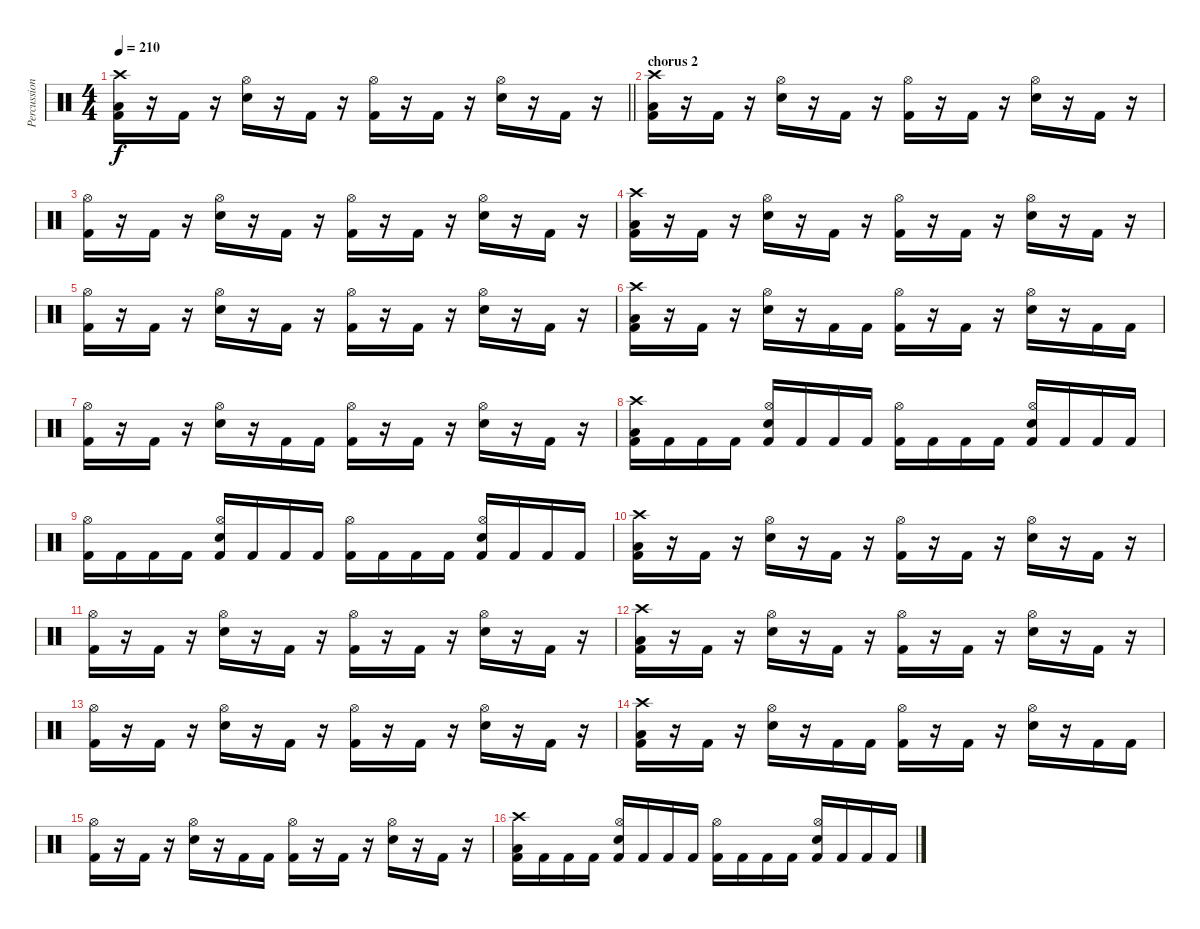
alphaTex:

\track ("Percussion" "Percussion") {instrument percussion}
\staff {score}
\articulation defaults
\ts (4 4)
\tempo 210
\clef neutral
\barLineRight lightlight
\ks c
("Crash high (hit)" "Low Floor Tom (hit)" "Kick (hit) 2").16{dy f} r.16 "Kick (hit) 2".16 r.16 ("Hi-Hat (open)" "Snare (hit) 2").16 r.16 "Kick (hit) 2".16 r.16 ("Hi-Hat (open)" "Kick (hit) 2").16 r.16 "Kick (hit) 2".16 r.16 ("Hi-Hat (open)" "Snare (hit) 2").16 r.16 "Kick (hit) 2".16 r.16 |
\section ("" "chorus 2")
("Crash high (hit)" "Low Floor Tom (hit)" "Kick (hit) 2").16 r.16 "Kick (hit) 2".16 r.16 ("Hi-Hat (open)" "Snare (hit) 2").16 r.16 "Kick (hit) 2".16 r.16 ("Hi-Hat (open)" "Kick (hit) 2").16 r.16 "Kick (hit) 2".16 r.16 ("Hi-Hat (open)" "Snare (hit) 2").16 r.16 "Kick (hit) 2".16 r.16 |
("Hi-Hat (open)" "Kick (hit) 2").16 r.16 "Kick (hit) 2".16 r.16 ("Hi-Hat (open)" "Snare (hit) 2").16 r.16 "Kick (hit) 2".16 r.16 ("Hi-Hat (open)" "Kick (hit) 2").16 r.16 "Kick (hit) 2".16 r.16 ("Hi-Hat (open)" "Snare (hit) 2").16 r.16 "Kick (hit) 2".16 r.16 |
("Crash high (hit)" "Low Floor Tom (hit)" "Kick (hit) 2").16 r.16 "Kick (hit) 2".16 r.16 ("Hi-Hat (open)" "Snare (hit) 2").16 r.16 "Kick (hit) 2".16 r.16 ("Hi-Hat (open)" "Kick (hit) 2").16 r.16 "Kick (hit) 2".16 r.16 ("Hi-Hat (open)" "Snare (hit) 2").16 r.16 "Kick (hit) 2".16 r.16 |
("Hi-Hat (open)" "Kick (hit) 2").16 r.16 "Kick (hit) 2".16 r.16 ("Hi-Hat (open)" "Snare (hit) 2").16 r.16 "Kick (hit) 2".16 r.16 ("Hi-Hat (open)" "Kick (hit) 2").16 r.16 "Kick (hit) 2".16 r.16 ("Hi-Hat (open)" "Snare (hit) 2").16 r.16 "Kick (hit) 2".16 r.16 |
("Crash high (hit)" "Low Floor Tom (hit)" "Kick (hit) 2").16 r.16 "Kick (hit) 2".16 r.16 ("Hi-Hat (open)" "Snare (hit) 2").16 r.16 "Kick (hit) 2".16 "Kick (hit) 2".16 ("Hi-Hat (open)" "Kick (hit) 2").16 r.16 "Kick (hit) 2".16 r.16 ("Hi-Hat (open)" "Snare (hit) 2").16 r.16 "Kick (hit) 2".16 "Kick (hit) 2".16 |
("Hi-Hat (open)" "Kick (hit) 2").16 r.16 "Kick (hit) 2".16 r.16 ("Hi-Hat (open)" "Snare (hit) 2").16 r.16 "Kick (hit) 2".16 "Kick (hit) 2".16 ("Hi-Hat (open)" "Kick (hit) 2").16 r.16 "Kick (hit) 2".16 r.16 ("Hi-Hat (open)" "Snare (hit) 2").16 r.16 "Kick (hit) 2".16 r.16 |
("Crash high (hit)" "Low Floor Tom (hit)" "Kick (hit) 2").16 "Kick (hit) 2".16 "Kick (hit) 2".16 "Kick (hit) 2".16 ("Hi-Hat (open)" "Snare (hit) 2" "Kick (hit) 2").16 "Kick (hit) 2".16 "Kick (hit) 2".16 "Kick (hit) 2".16 ("Hi-Hat (open)" "Kick (hit) 2").16 "Kick (hit) 2".16 "Kick (hit) 2".16 "Kick (hit) 2".16 ("Hi-Hat (open)" "Snare (hit) 2" "Kick (hit) 2").16 "Kick (hit) 2".16 "Kick (hit) 2".16 "Kick (hit) 2".16 |
("Hi-Hat (open)" "Kick (hit) 2").16 "Kick (hit) 2".16 "Kick (hit) 2".16 "Kick (hit) 2".16 ("Hi-Hat (open)" "Snare (hit) 2" "Kick (hit) 2").16 "Kick (hit) 2".16 "Kick (hit) 2".16 "Kick (hit) 2".16 ("Hi-Hat (open)" "Kick (hit) 2").16 "Kick (hit) 2".16 "Kick (hit) 2".16 "Kick (hit) 2".16 ("Hi-Hat (open)" "Snare (hit) 2" "Kick (hit) 2").16 "Kick (hit) 2".16 "Kick (hit) 2".16 "Kick (hit) 2".16 |
("Crash high (hit)" "Low Floor Tom (hit)" "Kick (hit) 2").16 r.16 "Kick (hit) 2".16 r.16 ("Hi-Hat (open)" "Snare (hit) 2").16 r.16 "Kick (hit) 2".16 r.16 ("Hi-Hat (open)" "Kick (hit) 2").16 r.16 "Kick (hit) 2".16 r.16 ("Hi-Hat (open)" "Snare (hit) 2").16 r.16 "Kick (hit) 2".16 r.16 |
("Hi-Hat (open)" "Kick (hit) 2").16 r.16 "Kick (hit) 2".16 r.16 ("Hi-Hat (open)" "Snare (hit) 2").16 r.16 "Kick (hit) 2".16 r.16 ("Hi-Hat (open)" "Kick (hit) 2").16 r.16 "Kick (hit) 2".16 r.16 ("Hi-Hat (open)" "Snare (hit) 2").16 r.16 "Kick (hit) 2".16 r.16 |
("Crash high (hit)" "Low Floor Tom (hit)" "Kick (hit) 2").16 r.16 "Kick (hit) 2".16 r.16 ("Hi-Hat (open)" "Snare (hit) 2").16 r.16 "Kick (hit) 2".16 r.16 ("Hi-Hat (open)" "Kick (hit) 2").16 r.16 "Kick (hit) 2".16 r.16 ("Hi-Hat (open)" "Snare (hit) 2").16 r.16 "Kick (hit) 2".16 r.16 |
("Hi-Hat (open)" "Kick (hit) 2").16 r.16 "Kick (hit) 2".16 r.16 ("Hi-Hat (open)" "Snare (hit) 2").16 r.16 "Kick (hit) 2".16 r.16 ("Hi-Hat (open)" "Kick (hit) 2").16 r.16 "Kick (hit) 2".16 r.16 ("Hi-Hat (open)" "Snare (hit) 2").16 r.16 "Kick (hit) 2".16 r.16 |
("Crash high (hit)" "Low Floor Tom (hit)" "Kick (hit) 2").16 r.16 "Kick (hit) 2".16 r.16 ("Hi-Hat (open)" "Snare (hit) 2").16 r.16 "Kick (hit) 2".16 "Kick (hit) 2".16 ("Hi-Hat (open)" "Kick (hit) 2").16 r.16 "Kick (hit) 2".16 r.16 ("Hi-Hat (open)" "Snare (hit) 2").16 r.16 "Kick (hit) 2".16 "Kick (hit) 2".16 |
("Hi-Hat (open)" "Kick (hit) 2").16 r.16 "Kick (hit) 2".16 r.16 ("Hi-Hat (open)" "Snare (hit) 2").16 r.16 "Kick (hit) 2".16 "Kick (hit) 2".16 ("Hi-Hat (open)" "Kick (hit) 2").16 r.16 "Kick (hit) 2".16 r.16 ("Hi-Hat (open)" "Snare (hit) 2").16 r.16 "Kick (hit) 2".16 r.16 |
("Crash high (hit)" "Low Floor Tom (hit)" "Kick (hit) 2").16 "Kick (hit) 2".16 "Kick (hit) 2".16 "Kick (hit) 2".16 ("Hi-Hat (open)" "Snare (hit) 2" "Kick (hit) 2").16 "Kick (hit) 2".16 "Kick (hit) 2".16 "Kick (hit) 2".16 ("Hi-Hat (open)" "Kick (hit) 2").16 "Kick (hit) 2".16 "Kick (hit) 2".16 "Kick (hit) 2".16 ("Hi-Hat (open)" "Snare (hit) 2" "Kick (hit) 2").16 "Kick (hit) 2".16 "Kick (hit) 2".16 "Kick (hit) 2".16
